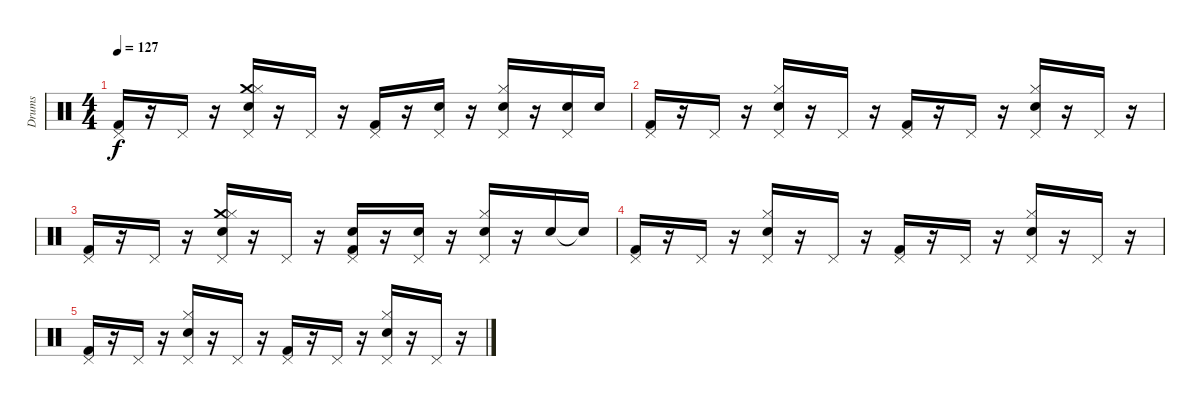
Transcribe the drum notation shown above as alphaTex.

\track ("Drums" "Drums") {instrument percussion}
\staff {score}
\articulation defaults
\ts (4 4)
\tempo 127
\clef neutral
\ks c
("Pedal Hi-Hat (hit)" "Kick (hit) 2").16{dy f} r.16 "Pedal Hi-Hat (hit)".16 r.16 ("Crash medium (hit)" "Hi-Hat (closed)" "Pedal Hi-Hat (hit)" "Electric Snare (hit)").16 r.16 "Pedal Hi-Hat (hit)".16 r.16 ("Pedal Hi-Hat (hit)" "Kick (hit) 2").16 r.16 ("Pedal Hi-Hat (hit)" "Electric Snare (hit)").16 r.16 ("Hi-Hat (closed)" "Pedal Hi-Hat (hit)" "Electric Snare (hit)").16 r.16 ("Pedal Hi-Hat (hit)" "Electric Snare (hit)").16 "Electric Snare (hit)".16 |
("Pedal Hi-Hat (hit)" "Kick (hit) 2").16 r.16 "Pedal Hi-Hat (hit)".16 r.16 ("Hi-Hat (closed)" "Pedal Hi-Hat (hit)" "Electric Snare (hit)").16 r.16 "Pedal Hi-Hat (hit)".16 r.16 ("Pedal Hi-Hat (hit)" "Kick (hit) 2").16 r.16 "Pedal Hi-Hat (hit)".16 r.16 ("Hi-Hat (closed)" "Pedal Hi-Hat (hit)" "Electric Snare (hit)").16 r.16 "Pedal Hi-Hat (hit)".16 r.16 |
("Pedal Hi-Hat (hit)" "Kick (hit) 2").16 r.16 "Pedal Hi-Hat (hit)".16 r.16 ("Crash medium (hit)" "Hi-Hat (closed)" "Pedal Hi-Hat (hit)" "Electric Snare (hit)").16 r.16 "Pedal Hi-Hat (hit)".16 r.16 ("Pedal Hi-Hat (hit)" "Electric Snare (hit)" "Kick (hit) 2").16 r.16 ("Pedal Hi-Hat (hit)" "Electric Snare (hit)").16 r.16 ("Hi-Hat (closed)" "Pedal Hi-Hat (hit)" "Electric Snare (hit)").16 r.16 "Electric Snare (hit)".16 "Electric Snare (hit)"{t}.16 |
("Pedal Hi-Hat (hit)" "Kick (hit) 2").16 r.16 "Pedal Hi-Hat (hit)".16 r.16 ("Hi-Hat (closed)" "Pedal Hi-Hat (hit)" "Electric Snare (hit)").16 r.16 "Pedal Hi-Hat (hit)".16 r.16 ("Pedal Hi-Hat (hit)" "Kick (hit) 2").16 r.16 "Pedal Hi-Hat (hit)".16 r.16 ("Hi-Hat (closed)" "Pedal Hi-Hat (hit)" "Electric Snare (hit)").16 r.16 "Pedal Hi-Hat (hit)".16 r.16 |
("Pedal Hi-Hat (hit)" "Kick (hit) 2").16 r.16 "Pedal Hi-Hat (hit)".16 r.16 ("Hi-Hat (closed)" "Pedal Hi-Hat (hit)" "Electric Snare (hit)").16 r.16 "Pedal Hi-Hat (hit)".16 r.16 ("Pedal Hi-Hat (hit)" "Kick (hit) 2").16 r.16 "Pedal Hi-Hat (hit)".16 r.16 ("Hi-Hat (closed)" "Pedal Hi-Hat (hit)" "Electric Snare (hit)").16 r.16 "Pedal Hi-Hat (hit)".16 r.16
